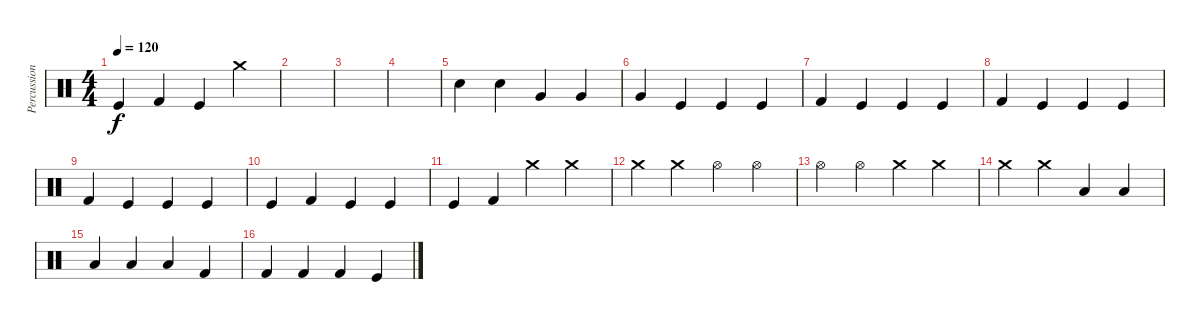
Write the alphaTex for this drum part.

\track ("Percussions" "Percussion") {instrument percussion}
\staff {score}
\articulation defaults
\ts (4 4)
\tempo 120
\clef neutral
\ks c "Kick (hit)".4{dy f} "Kick (hit) 2".4 "Kick (hit)".4 "Crash medium (hit)".4
|
|
|
|
"Snare (hit)"{x}.4 "Snare (hit)"{x}.4 "Very Low Tom (hit)".4 "Very Low Tom (hit)".4 |
"Very Low Tom (hit)".4 "Kick (hit)".4 "Kick (hit)".4 "Kick (hit)".4 |
"Kick (hit) 2".4 "Kick (hit)".4 "Kick (hit)".4 "Kick (hit)".4 |
"Kick (hit) 2".4 "Kick (hit)".4 "Kick (hit)".4 "Kick (hit)".4 |
"Kick (hit) 2".4 "Kick (hit)".4 "Kick (hit)".4 "Kick (hit)".4 |
"Kick (hit)".4 "Kick (hit) 2".4 "Kick (hit)".4 "Kick (hit)".4 |
"Kick (hit)".4 "Kick (hit) 2".4 "Crash medium (hit)".4 "Crash medium (hit)".4 |
"Crash medium (hit)".4 "Crash medium (hit)".4 "Hi-Hat (open)".4 "Hi-Hat (open)".4 |
"Hi-Hat (open)".4 "Hi-Hat (open)".4 "Crash medium (hit)".4 "Crash medium (hit)".4 |
"Crash medium (hit)".4 "Crash medium (hit)".4 "Low Tom (hit)".4 "Low Tom (hit)".4 |
"Low Tom (hit)".4 "Low Tom (hit)".4 "Low Tom (hit)".4 "Kick (hit) 2".4 |
"Kick (hit) 2".4 "Kick (hit) 2".4 "Kick (hit) 2".4 "Kick (hit)".4
